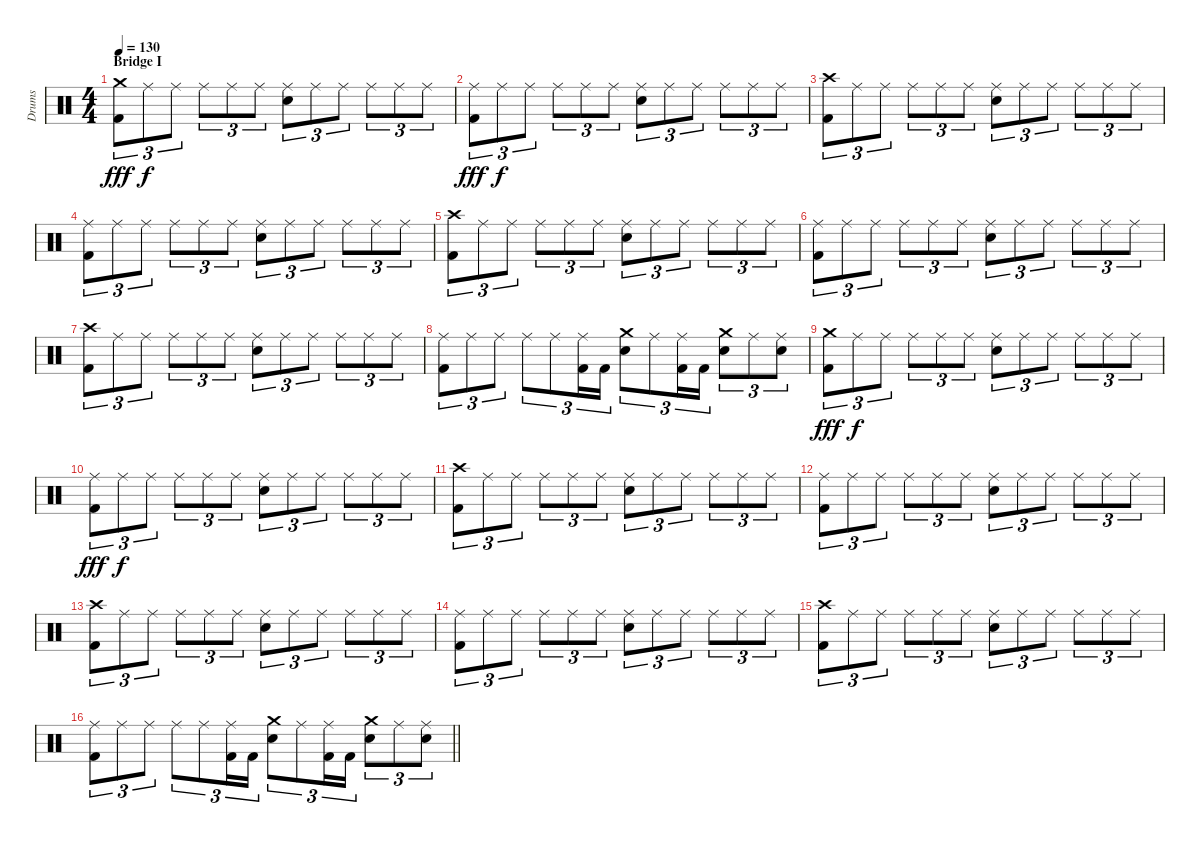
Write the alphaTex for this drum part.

\track ("Drums" "Drums") {instrument percussion}
\staff {score}
\articulation defaults
\ts (4 4)
\section ("" "Bridge I")
\tempo 130
\clef neutral
\ks c
("Crash medium (hit)" "Kick (hit) 2").8{tu (3 2) dy fff} "Ride (middle)".8{tu (3 2) dy f} "Ride (middle)".8{tu (3 2)} "Ride (middle)".8{tu (3 2)} "Ride (middle)".8{tu (3 2)} "Ride (middle)".8{tu (3 2)} ("Ride (middle)" "Electric Snare (hit)").8{tu (3 2)} "Ride (middle)".8{tu (3 2)} "Ride (middle)".8{tu (3 2)} "Ride (middle)".8{tu (3 2)} "Ride (middle)".8{tu (3 2)} "Ride (middle)".8{tu (3 2)} |
("Ride (middle)" "Kick (hit) 2").8{tu (3 2) dy fff} "Ride (middle)".8{tu (3 2) dy f} "Ride (middle)".8{tu (3 2)} "Ride (middle)".8{tu (3 2)} "Ride (middle)".8{tu (3 2)} "Ride (middle)".8{tu (3 2)} ("Ride (middle)" "Electric Snare (hit)").8{tu (3 2)} "Ride (middle)".8{tu (3 2)} "Ride (middle)".8{tu (3 2)} "Ride (middle)".8{tu (3 2)} "Ride (middle)".8{tu (3 2)} "Ride (middle)".8{tu (3 2)} |
("Crash high (hit)" "Kick (hit) 2").8{tu (3 2)} "Ride (middle)".8{tu (3 2)} "Ride (middle)".8{tu (3 2)} "Ride (middle)".8{tu (3 2)} "Ride (middle)".8{tu (3 2)} "Ride (middle)".8{tu (3 2)} ("Ride (middle)" "Electric Snare (hit)").8{tu (3 2)} "Ride (middle)".8{tu (3 2)} "Ride (middle)".8{tu (3 2)} "Ride (middle)".8{tu (3 2)} "Ride (middle)".8{tu (3 2)} "Ride (middle)".8{tu (3 2)} |
("Ride (middle)" "Kick (hit) 2").8{tu (3 2)} "Ride (middle)".8{tu (3 2)} "Ride (middle)".8{tu (3 2)} "Ride (middle)".8{tu (3 2)} "Ride (middle)".8{tu (3 2)} "Ride (middle)".8{tu (3 2)} ("Ride (middle)" "Electric Snare (hit)").8{tu (3 2)} "Ride (middle)".8{tu (3 2)} "Ride (middle)".8{tu (3 2)} "Ride (middle)".8{tu (3 2)} "Ride (middle)".8{tu (3 2)} "Ride (middle)".8{tu (3 2)} |
("Crash high (hit)" "Kick (hit) 2").8{tu (3 2)} "Ride (middle)".8{tu (3 2)} "Ride (middle)".8{tu (3 2)} "Ride (middle)".8{tu (3 2)} "Ride (middle)".8{tu (3 2)} "Ride (middle)".8{tu (3 2)} ("Ride (middle)" "Electric Snare (hit)").8{tu (3 2)} "Ride (middle)".8{tu (3 2)} "Ride (middle)".8{tu (3 2)} "Ride (middle)".8{tu (3 2)} "Ride (middle)".8{tu (3 2)} "Ride (middle)".8{tu (3 2)} |
("Ride (middle)" "Kick (hit) 2").8{tu (3 2)} "Ride (middle)".8{tu (3 2)} "Ride (middle)".8{tu (3 2)} "Ride (middle)".8{tu (3 2)} "Ride (middle)".8{tu (3 2)} "Ride (middle)".8{tu (3 2)} ("Ride (middle)" "Electric Snare (hit)").8{tu (3 2)} "Ride (middle)".8{tu (3 2)} "Ride (middle)".8{tu (3 2)} "Ride (middle)".8{tu (3 2)} "Ride (middle)".8{tu (3 2)} "Ride (middle)".8{tu (3 2)} |
("Crash high (hit)" "Kick (hit) 2").8{tu (3 2)} "Ride (middle)".8{tu (3 2)} "Ride (middle)".8{tu (3 2)} "Ride (middle)".8{tu (3 2)} "Ride (middle)".8{tu (3 2)} "Ride (middle)".8{tu (3 2)} ("Ride (middle)" "Electric Snare (hit)").8{tu (3 2)} "Ride (middle)".8{tu (3 2)} "Ride (middle)".8{tu (3 2)} "Ride (middle)".8{tu (3 2)} "Ride (middle)".8{tu (3 2)} "Ride (middle)".8{tu (3 2)} |
("Ride (middle)" "Kick (hit) 2").8{tu (3 2)} "Ride (middle)".8{tu (3 2)} "Ride (middle)".8{tu (3 2)} "Ride (middle)".8{tu (3 2)} "Ride (middle)".8{tu (3 2)} ("Ride (middle)" "Kick (hit) 2").16{tu (3 2)} "Kick (hit) 2".16{tu (3 2)} ("Crash medium (hit)" "Electric Snare (hit)").8{tu (3 2)} "Ride (middle)".8{tu (3 2)} ("Ride (middle)" "Kick (hit) 2").16{tu (3 2)} "Kick (hit) 2".16{tu (3 2)} ("Crash medium (hit)" "Electric Snare (hit)").8{tu (3 2)} "Ride (middle)".8{tu (3 2)} ("Ride (middle)" "Electric Snare (hit)").8{tu (3 2)} |
("Crash medium (hit)" "Kick (hit) 2").8{tu (3 2) dy fff} "Ride (middle)".8{tu (3 2) dy f} "Ride (middle)".8{tu (3 2)} "Ride (middle)".8{tu (3 2)} "Ride (middle)".8{tu (3 2)} "Ride (middle)".8{tu (3 2)} ("Ride (middle)" "Electric Snare (hit)").8{tu (3 2)} "Ride (middle)".8{tu (3 2)} "Ride (middle)".8{tu (3 2)} "Ride (middle)".8{tu (3 2)} "Ride (middle)".8{tu (3 2)} "Ride (middle)".8{tu (3 2)} |
("Ride (middle)" "Kick (hit) 2").8{tu (3 2) dy fff} "Ride (middle)".8{tu (3 2) dy f} "Ride (middle)".8{tu (3 2)} "Ride (middle)".8{tu (3 2)} "Ride (middle)".8{tu (3 2)} "Ride (middle)".8{tu (3 2)} ("Ride (middle)" "Electric Snare (hit)").8{tu (3 2)} "Ride (middle)".8{tu (3 2)} "Ride (middle)".8{tu (3 2)} "Ride (middle)".8{tu (3 2)} "Ride (middle)".8{tu (3 2)} "Ride (middle)".8{tu (3 2)} |
("Crash high (hit)" "Kick (hit) 2").8{tu (3 2)} "Ride (middle)".8{tu (3 2)} "Ride (middle)".8{tu (3 2)} "Ride (middle)".8{tu (3 2)} "Ride (middle)".8{tu (3 2)} "Ride (middle)".8{tu (3 2)} ("Ride (middle)" "Electric Snare (hit)").8{tu (3 2)} "Ride (middle)".8{tu (3 2)} "Ride (middle)".8{tu (3 2)} "Ride (middle)".8{tu (3 2)} "Ride (middle)".8{tu (3 2)} "Ride (middle)".8{tu (3 2)} |
("Ride (middle)" "Kick (hit) 2").8{tu (3 2)} "Ride (middle)".8{tu (3 2)} "Ride (middle)".8{tu (3 2)} "Ride (middle)".8{tu (3 2)} "Ride (middle)".8{tu (3 2)} "Ride (middle)".8{tu (3 2)} ("Ride (middle)" "Electric Snare (hit)").8{tu (3 2)} "Ride (middle)".8{tu (3 2)} "Ride (middle)".8{tu (3 2)} "Ride (middle)".8{tu (3 2)} "Ride (middle)".8{tu (3 2)} "Ride (middle)".8{tu (3 2)} |
("Crash high (hit)" "Kick (hit) 2").8{tu (3 2)} "Ride (middle)".8{tu (3 2)} "Ride (middle)".8{tu (3 2)} "Ride (middle)".8{tu (3 2)} "Ride (middle)".8{tu (3 2)} "Ride (middle)".8{tu (3 2)} ("Ride (middle)" "Electric Snare (hit)").8{tu (3 2)} "Ride (middle)".8{tu (3 2)} "Ride (middle)".8{tu (3 2)} "Ride (middle)".8{tu (3 2)} "Ride (middle)".8{tu (3 2)} "Ride (middle)".8{tu (3 2)} |
("Ride (middle)" "Kick (hit) 2").8{tu (3 2)} "Ride (middle)".8{tu (3 2)} "Ride (middle)".8{tu (3 2)} "Ride (middle)".8{tu (3 2)} "Ride (middle)".8{tu (3 2)} "Ride (middle)".8{tu (3 2)} ("Ride (middle)" "Electric Snare (hit)").8{tu (3 2)} "Ride (middle)".8{tu (3 2)} "Ride (middle)".8{tu (3 2)} "Ride (middle)".8{tu (3 2)} "Ride (middle)".8{tu (3 2)} "Ride (middle)".8{tu (3 2)} |
("Crash high (hit)" "Kick (hit) 2").8{tu (3 2)} "Ride (middle)".8{tu (3 2)} "Ride (middle)".8{tu (3 2)} "Ride (middle)".8{tu (3 2)} "Ride (middle)".8{tu (3 2)} "Ride (middle)".8{tu (3 2)} ("Ride (middle)" "Electric Snare (hit)").8{tu (3 2)} "Ride (middle)".8{tu (3 2)} "Ride (middle)".8{tu (3 2)} "Ride (middle)".8{tu (3 2)} "Ride (middle)".8{tu (3 2)} "Ride (middle)".8{tu (3 2)} |
\barLineRight lightlight
("Ride (middle)" "Kick (hit) 2").8{tu (3 2)} "Ride (middle)".8{tu (3 2)} "Ride (middle)".8{tu (3 2)} "Ride (middle)".8{tu (3 2)} "Ride (middle)".8{tu (3 2)} ("Ride (middle)" "Kick (hit) 2").16{tu (3 2)} "Kick (hit) 2".16{tu (3 2)} ("Crash medium (hit)" "Electric Snare (hit)").8{tu (3 2)} "Ride (middle)".8{tu (3 2)} ("Ride (middle)" "Kick (hit) 2").16{tu (3 2)} "Kick (hit) 2".16{tu (3 2)} ("Crash medium (hit)" "Electric Snare (hit)").8{tu (3 2)} "Ride (middle)".8{tu (3 2)} ("Ride (middle)" "Electric Snare (hit)").8{tu (3 2)}
